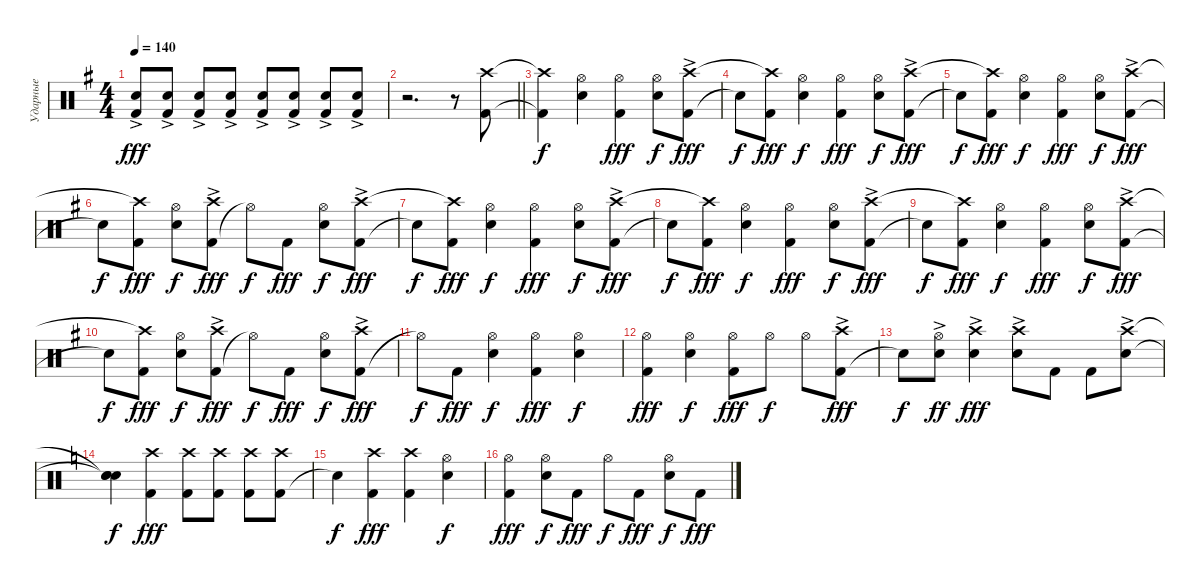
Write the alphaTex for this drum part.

\track ("Ударные" "Ударные") {instrument percussion}
\staff {score}
\articulation defaults
\ts (4 4)
\tempo 140
\clef neutral
\ks g
("Snare (hit) 2" "Kick (hit) 2"{ac}).8{dy fff} ("Snare (hit) 2" "Kick (hit) 2"{ac}).8 ("Snare (hit) 2" "Kick (hit) 2"{ac}).8 ("Snare (hit) 2" "Kick (hit) 2"{ac}).8 ("Snare (hit) 2" "Kick (hit) 2"{ac}).8 ("Snare (hit) 2" "Kick (hit) 2"{ac}).8 ("Snare (hit) 2" "Kick (hit) 2"{ac}).8 ("Snare (hit) 2" "Kick (hit) 2"{ac}).8 |
\barLineRight lightlight
r.2{d} r.8 ("Kick (hit) 2" "Crash high (hit)").8 |
("Kick (hit) 2"{t} "Crash high (hit)"{t}).4{dy f} ("Snare (hit) 2" "Hi-Hat (open)").4 ("Kick (hit) 2" "Hi-Hat (open)").4{dy fff} ("Snare (hit) 2" "Hi-Hat (open)").8{dy f} ("Kick (hit) 2"{ac} "Crash high (hit)"{ac}).8{dy fff} |
"Snare (hit)"{t}.8{dy f} ("Kick (hit) 2" "Crash high (hit)"{t}).8{dy fff} ("Snare (hit) 2" "Hi-Hat (open)").4{dy f} ("Kick (hit) 2" "Hi-Hat (open)").4{dy fff} ("Snare (hit) 2" "Hi-Hat (open)").8{dy f} ("Kick (hit) 2"{ac} "Crash high (hit)"{ac}).8{dy fff} |
"Snare (hit)"{t}.8{dy f} ("Kick (hit) 2" "Crash high (hit)"{t}).8{dy fff} ("Snare (hit) 2" "Hi-Hat (open)").4{dy f} ("Kick (hit) 2" "Hi-Hat (open)").4{dy fff} ("Snare (hit) 2" "Hi-Hat (open)").8{dy f} ("Kick (hit) 2"{ac} "Crash high (hit)"{ac}).8{dy fff} |
"Snare (hit)"{t}.8{dy f} ("Kick (hit) 2" "Crash high (hit)"{t}).8{dy fff} ("Snare (hit) 2" "Hi-Hat (open)").8{dy f} ("Kick (hit) 2"{ac} "Crash high (hit)"{ac}).8{dy fff} "Hi-Hat (open)"{t}.8{dy f} "Kick (hit) 2".8{dy fff} ("Snare (hit) 2" "Hi-Hat (open)").8{dy f} ("Kick (hit) 2"{ac} "Crash high (hit)"{ac}).8{dy fff} |
"Snare (hit)"{t}.8{dy f} ("Kick (hit) 2" "Crash high (hit)"{t}).8{dy fff} ("Snare (hit) 2" "Hi-Hat (open)").4{dy f} ("Kick (hit) 2" "Hi-Hat (open)").4{dy fff} ("Snare (hit) 2" "Hi-Hat (open)").8{dy f} ("Kick (hit) 2"{ac} "Crash high (hit)"{ac}).8{dy fff} |
"Snare (hit)"{t}.8{dy f} ("Kick (hit) 2" "Crash high (hit)"{t}).8{dy fff} ("Snare (hit) 2" "Hi-Hat (open)").4{dy f} ("Kick (hit) 2" "Hi-Hat (open)").4{dy fff} ("Snare (hit) 2" "Hi-Hat (open)").8{dy f} ("Kick (hit) 2"{ac} "Crash high (hit)"{ac}).8{dy fff} |
"Snare (hit)"{t}.8{dy f} ("Kick (hit) 2" "Crash high (hit)"{t}).8{dy fff} ("Snare (hit) 2" "Hi-Hat (open)").4{dy f} ("Kick (hit) 2" "Hi-Hat (open)").4{dy fff} ("Snare (hit) 2" "Hi-Hat (open)").8{dy f} ("Kick (hit) 2"{ac} "Crash high (hit)"{ac}).8{dy fff} |
"Snare (hit)"{t}.8{dy f} ("Kick (hit) 2" "Crash high (hit)"{t}).8{dy fff} ("Snare (hit) 2" "Hi-Hat (open)").8{dy f} ("Kick (hit) 2"{ac} "Crash high (hit)"{ac}).8{dy fff} "Hi-Hat (open)"{t}.8{dy f} "Kick (hit) 2".8{dy fff} ("Snare (hit) 2" "Hi-Hat (open)").8{dy f} ("Kick (hit) 2"{ac} "Crash high (hit)"{ac}).8{dy fff} |
"Hi-Hat (open)"{t}.8{dy f} "Kick (hit) 2".8{dy fff} ("Snare (hit) 2" "Hi-Hat (open)").4{dy f} ("Kick (hit) 2" "Hi-Hat (open)").4{dy fff} ("Snare (hit) 2" "Hi-Hat (open)").4{dy f} |
("Kick (hit) 2" "Hi-Hat (open)").4{dy fff} ("Snare (hit) 2" "Hi-Hat (open)").4{dy f} ("Kick (hit) 2" "Hi-Hat (open)").8{dy fff} "Hi-Hat (open)".8{dy f} "Hi-Hat (open)".8 ("Kick (hit) 2"{ac} "Crash high (hit)"{ac}).8{dy fff} |
"Snare (hit)"{t}.8{dy f} ("Snare (hit) 2" "Hi-Hat (open)"{ac}).8{dy ff} ("Snare (hit) 2" "Crash high (hit)"{ac}).4{dy fff} ("Snare (hit) 2" "Crash high (hit)"{ac}).8 "Kick (hit) 2".8 "Kick (hit) 2".8 ("Snare (hit) 2" "Crash high (hit)"{ac}).8 |
\ks c
("Snare (hit)"{t} "Snare (hit)"{t} "Snare (hit)").4{dy f} ("Kick (hit) 2" "Crash high (hit)").4{dy fff} ("Kick (hit) 2" "Crash high (hit)").8 ("Kick (hit) 2" "Crash high (hit)").8 ("Kick (hit) 2" "Crash high (hit)").8 ("Kick (hit) 2" "Crash high (hit)").8 |
"Snare (hit)"{t}.4{dy f} ("Kick (hit) 2" "Crash high (hit)").4{dy fff} ("Kick (hit) 2" "Crash high (hit)").4 ("Snare (hit) 2" "Hi-Hat (open)").4{dy f} |
("Kick (hit) 2" "Hi-Hat (open)").4{dy fff} ("Snare (hit) 2" "Hi-Hat (open)").8{dy f} "Kick (hit) 2".8{dy fff} "Hi-Hat (open)".8{dy f} "Kick (hit) 2".8{dy fff} ("Snare (hit) 2" "Hi-Hat (open)").8{dy f} "Kick (hit) 2".8{dy fff}
